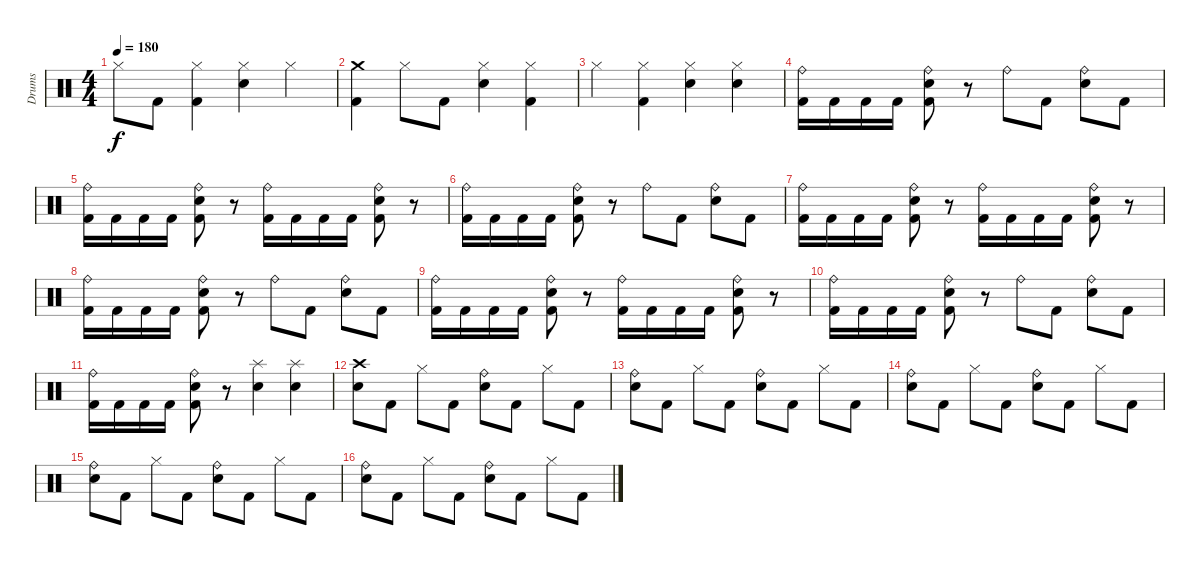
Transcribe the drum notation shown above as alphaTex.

\track ("Drums " "Drums ") {instrument percussion}
\staff {score}
\articulation defaults
\ts (4 4)
\tempo 180
\clef neutral
\ks c "Hi-Hat (closed)".8{dy f} "Kick (hit) 2".8
("Kick (hit) 2" "Hi-Hat (closed)").4 ("Hi-Hat (closed)" "Electric Snare (hit)").4 "Hi-Hat (closed)".4 |
("Kick (hit) 2" "Crash medium (hit)").4 "Hi-Hat (closed)".8 "Kick (hit) 2".8 ("Hi-Hat (closed)" "Electric Snare (hit)").4 ("Kick (hit) 2" "Hi-Hat (closed)").4 |
"Hi-Hat (closed)".4 ("Kick (hit) 2" "Hi-Hat (closed)").4 ("Hi-Hat (closed)" "Electric Snare (hit)").4 ("Hi-Hat (closed)" "Electric Snare (hit)").4 |
("Kick (hit) 2" "Ride (bell)").16 "Kick (hit) 2".16 "Kick (hit) 2".16 "Kick (hit) 2".16 ("Kick (hit) 2" "Ride (bell)" "Electric Snare (hit)").8 r.8 "Ride (bell)".8 "Kick (hit) 2".8 ("Ride (bell)" "Electric Snare (hit)").8 "Kick (hit) 2".8 |
("Kick (hit) 2" "Ride (bell)").16 "Kick (hit) 2".16 "Kick (hit) 2".16 "Kick (hit) 2".16 ("Kick (hit) 2" "Ride (bell)" "Electric Snare (hit)").8 r.8 ("Kick (hit) 2" "Ride (bell)").16 "Kick (hit) 2".16 "Kick (hit) 2".16 "Kick (hit) 2".16 ("Kick (hit) 2" "Ride (bell)" "Electric Snare (hit)").8 r.8 |
("Kick (hit) 2" "Ride (bell)").16 "Kick (hit) 2".16 "Kick (hit) 2".16 "Kick (hit) 2".16 ("Kick (hit) 2" "Ride (bell)" "Electric Snare (hit)").8 r.8 "Ride (bell)".8 "Kick (hit) 2".8 ("Ride (bell)" "Electric Snare (hit)").8 "Kick (hit) 2".8 |
("Kick (hit) 2" "Ride (bell)").16 "Kick (hit) 2".16 "Kick (hit) 2".16 "Kick (hit) 2".16 ("Kick (hit) 2" "Ride (bell)" "Electric Snare (hit)").8 r.8 ("Kick (hit) 2" "Ride (bell)").16 "Kick (hit) 2".16 "Kick (hit) 2".16 "Kick (hit) 2".16 ("Kick (hit) 2" "Ride (bell)" "Electric Snare (hit)").8 r.8 |
("Kick (hit) 2" "Ride (bell)").16 "Kick (hit) 2".16 "Kick (hit) 2".16 "Kick (hit) 2".16 ("Kick (hit) 2" "Ride (bell)" "Electric Snare (hit)").8 r.8 "Ride (bell)".8 "Kick (hit) 2".8 ("Ride (bell)" "Electric Snare (hit)").8 "Kick (hit) 2".8 |
("Kick (hit) 2" "Ride (bell)").16 "Kick (hit) 2".16 "Kick (hit) 2".16 "Kick (hit) 2".16 ("Kick (hit) 2" "Ride (bell)" "Electric Snare (hit)").8 r.8 ("Kick (hit) 2" "Ride (bell)").16 "Kick (hit) 2".16 "Kick (hit) 2".16 "Kick (hit) 2".16 ("Kick (hit) 2" "Ride (bell)" "Electric Snare (hit)").8 r.8 |
("Kick (hit) 2" "Ride (bell)").16 "Kick (hit) 2".16 "Kick (hit) 2".16 "Kick (hit) 2".16 ("Kick (hit) 2" "Ride (bell)" "Electric Snare (hit)").8 r.8 "Ride (bell)".8 "Kick (hit) 2".8 ("Ride (bell)" "Electric Snare (hit)").8 "Kick (hit) 2".8 |
("Kick (hit) 2" "Ride (bell)").16 "Kick (hit) 2".16 "Kick (hit) 2".16 "Kick (hit) 2".16 ("Kick (hit) 2" "Ride (bell)" "Electric Snare (hit)").8 r.8 ("Splash (hit)" "Electric Snare (hit)").4 ("Splash (hit)" "Electric Snare (hit)").4 |
("Crash high (hit)" "Electric Snare (hit)").8 "Kick (hit) 2".8 "Hi-Hat (closed)".8 "Kick (hit) 2".8 ("Ride (bell)" "Electric Snare (hit)").8 "Kick (hit) 2".8 "Hi-Hat (closed)".8 "Kick (hit) 2".8 |
("Ride (bell)" "Electric Snare (hit)").8 "Kick (hit) 2".8 "Hi-Hat (closed)".8 "Kick (hit) 2".8 ("Ride (bell)" "Electric Snare (hit)").8 "Kick (hit) 2".8 "Hi-Hat (closed)".8 "Kick (hit) 2".8 |
("Ride (bell)" "Electric Snare (hit)").8 "Kick (hit) 2".8 "Hi-Hat (closed)".8 "Kick (hit) 2".8 ("Ride (bell)" "Electric Snare (hit)").8 "Kick (hit) 2".8 "Hi-Hat (closed)".8 "Kick (hit) 2".8 |
("Ride (bell)" "Electric Snare (hit)").8 "Kick (hit) 2".8 "Hi-Hat (closed)".8 "Kick (hit) 2".8 ("Ride (bell)" "Electric Snare (hit)").8 "Kick (hit) 2".8 "Hi-Hat (closed)".8 "Kick (hit) 2".8 |
("Ride (bell)" "Electric Snare (hit)").8 "Kick (hit) 2".8 "Hi-Hat (closed)".8 "Kick (hit) 2".8 ("Ride (bell)" "Electric Snare (hit)").8 "Kick (hit) 2".8 "Hi-Hat (closed)".8 "Kick (hit) 2".8
